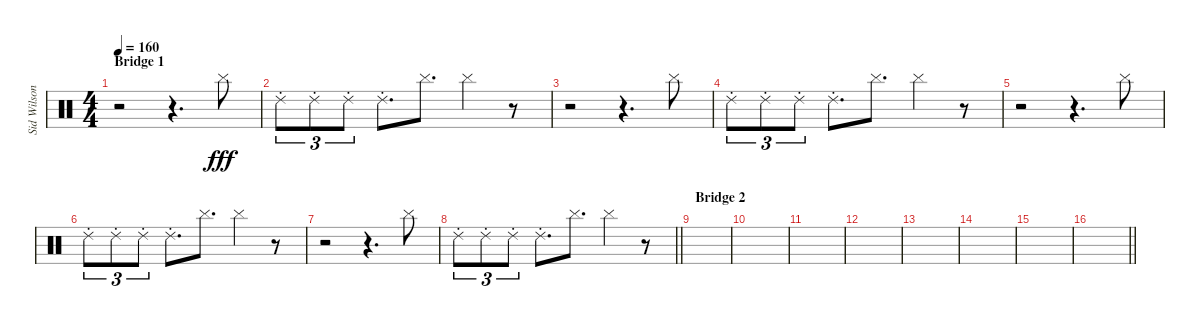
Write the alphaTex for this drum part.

\track ("Sid Wilson" "Sid Wilson") {instrument percussion}
\staff {score}
\articulation defaults
\ts (4 4)
\section ("" "Bridge 1")
\tempo 160
\clef neutral
\ks c
r.2{dy p} r.4{d} "Cymbal (hit)".8{dy fff} |
"Ride (choke) 2".8{tu (3 2)} "Ride (choke) 2".8{tu (3 2)} "Ride (choke) 2".8{tu (3 2)} "Ride (choke) 2".8{d} "Cymbal (hit)".8{d} "Cymbal (hit)".4 r.8 |
r.2 r.4{d} "Cymbal (hit)".8 |
"Ride (choke) 2".8{tu (3 2)} "Ride (choke) 2".8{tu (3 2)} "Ride (choke) 2".8{tu (3 2)} "Ride (choke) 2".8{d} "Cymbal (hit)".8{d} "Cymbal (hit)".4 r.8 |
r.2 r.4{d} "Cymbal (hit)".8 |
"Ride (choke) 2".8{tu (3 2)} "Ride (choke) 2".8{tu (3 2)} "Ride (choke) 2".8{tu (3 2)} "Ride (choke) 2".8{d} "Cymbal (hit)".8{d} "Cymbal (hit)".4 r.8 |
r.2 r.4{d} "Cymbal (hit)".8 |
\barLineRight lightlight "Ride (choke) 2".8{tu (3 2)} "Ride (choke) 2".8{tu (3 2)} "Ride (choke) 2".8{tu (3 2)} "Ride (choke) 2".8{d} "Cymbal (hit)".8{d} "Cymbal (hit)".4
r.8 |
\section ("" "Bridge 2")
|
|
|
|
|
|
|
\barLineRight lightlight
